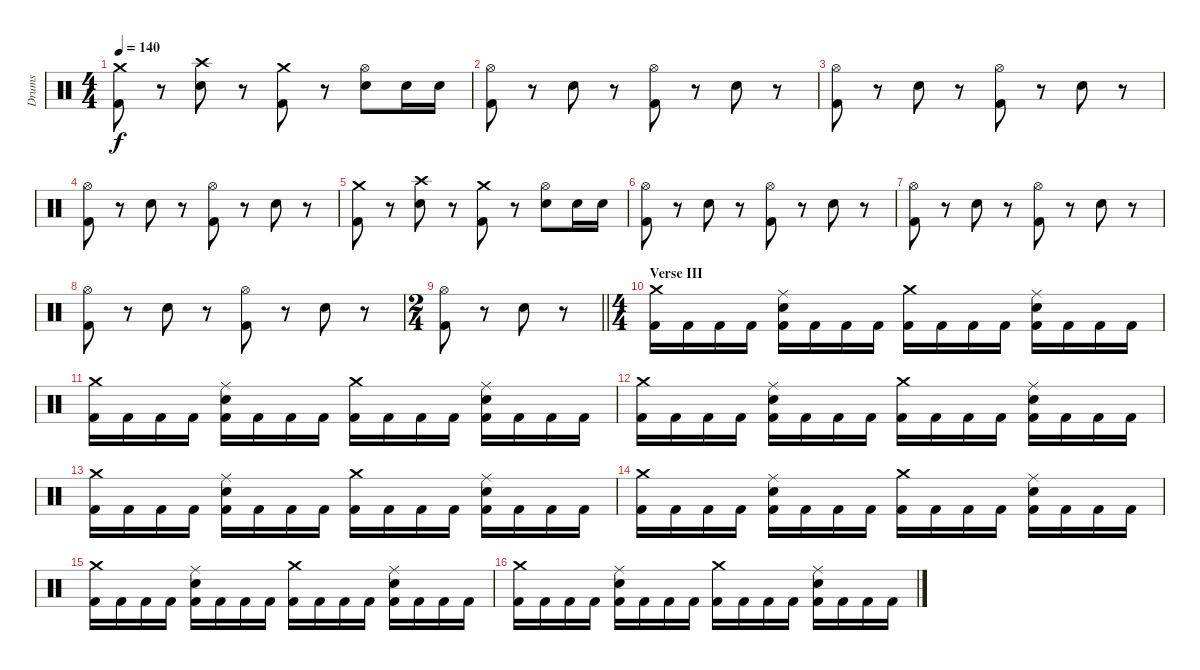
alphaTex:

\track ("Drums" "Drums") {instrument percussion}
\staff {score}
\articulation defaults
\ts (4 4)
\tempo 140
\clef neutral
\ks c
("Crash medium (hit)" "Kick (hit) 2").8{dy f} r.8 ("Crash high (hit)" "Snare (hit) 2").8 r.8 ("Crash medium (hit)" "Kick (hit) 2").8 r.8 ("Hi-Hat (open)" "Snare (hit) 2").8 "Snare (hit) 2".16 "Snare (hit) 2".16 |
("Hi-Hat (open)" "Kick (hit) 2").8 r.8 "Snare (hit) 2".8 r.8 ("Hi-Hat (open)" "Kick (hit) 2").8 r.8 "Snare (hit) 2".8 r.8 |
("Hi-Hat (open)" "Kick (hit) 2").8 r.8 "Snare (hit) 2".8 r.8 ("Hi-Hat (open)" "Kick (hit) 2").8 r.8 "Snare (hit) 2".8 r.8 |
("Hi-Hat (open)" "Kick (hit) 2").8 r.8 "Snare (hit) 2".8 r.8 ("Hi-Hat (open)" "Kick (hit) 2").8 r.8 "Snare (hit) 2".8 r.8 |
("Crash medium (hit)" "Kick (hit) 2").8 r.8 ("Crash high (hit)" "Snare (hit) 2").8 r.8 ("Crash medium (hit)" "Kick (hit) 2").8 r.8 ("Hi-Hat (open)" "Snare (hit) 2").8 "Snare (hit) 2".16 "Snare (hit) 2".16 |
("Hi-Hat (open)" "Kick (hit) 2").8 r.8 "Snare (hit) 2".8 r.8 ("Hi-Hat (open)" "Kick (hit) 2").8 r.8 "Snare (hit) 2".8 r.8 |
("Hi-Hat (open)" "Kick (hit) 2").8 r.8 "Snare (hit) 2".8 r.8 ("Hi-Hat (open)" "Kick (hit) 2").8 r.8 "Snare (hit) 2".8 r.8 |
("Hi-Hat (open)" "Kick (hit) 2").8 r.8 "Snare (hit) 2".8 r.8 ("Hi-Hat (open)" "Kick (hit) 2").8 r.8 "Snare (hit) 2".8 r.8 |
\ts (2 4)
\barLineRight lightlight
("Hi-Hat (open)" "Kick (hit) 2").8 r.8 "Snare (hit) 2".8 r.8 |
\ts (4 4)
\section ("" "Verse III")
("Crash medium (hit)" "Kick (hit) 2").16 "Kick (hit) 2".16 "Kick (hit) 2".16 "Kick (hit) 2".16 ("Ride (middle)" "Snare (hit) 2" "Kick (hit) 2").16 "Kick (hit) 2".16 "Kick (hit) 2".16 "Kick (hit) 2".16 ("Crash medium (hit)" "Kick (hit) 2").16 "Kick (hit) 2".16 "Kick (hit) 2".16 "Kick (hit) 2".16 ("Ride (middle)" "Snare (hit) 2" "Kick (hit) 2").16 "Kick (hit) 2".16 "Kick (hit) 2".16 "Kick (hit) 2".16 |
("Crash medium (hit)" "Kick (hit) 2").16 "Kick (hit) 2".16 "Kick (hit) 2".16 "Kick (hit) 2".16 ("Ride (middle)" "Snare (hit) 2" "Kick (hit) 2").16 "Kick (hit) 2".16 "Kick (hit) 2".16 "Kick (hit) 2".16 ("Crash medium (hit)" "Kick (hit) 2").16 "Kick (hit) 2".16 "Kick (hit) 2".16 "Kick (hit) 2".16 ("Ride (middle)" "Snare (hit) 2" "Kick (hit) 2").16 "Kick (hit) 2".16 "Kick (hit) 2".16 "Kick (hit) 2".16 |
("Crash medium (hit)" "Kick (hit) 2").16 "Kick (hit) 2".16 "Kick (hit) 2".16 "Kick (hit) 2".16 ("Ride (middle)" "Snare (hit) 2" "Kick (hit) 2").16 "Kick (hit) 2".16 "Kick (hit) 2".16 "Kick (hit) 2".16 ("Crash medium (hit)" "Kick (hit) 2").16 "Kick (hit) 2".16 "Kick (hit) 2".16 "Kick (hit) 2".16 ("Ride (middle)" "Snare (hit) 2" "Kick (hit) 2").16 "Kick (hit) 2".16 "Kick (hit) 2".16 "Kick (hit) 2".16 |
("Crash medium (hit)" "Kick (hit) 2").16 "Kick (hit) 2".16 "Kick (hit) 2".16 "Kick (hit) 2".16 ("Ride (middle)" "Snare (hit) 2" "Kick (hit) 2").16 "Kick (hit) 2".16 "Kick (hit) 2".16 "Kick (hit) 2".16 ("Crash medium (hit)" "Kick (hit) 2").16 "Kick (hit) 2".16 "Kick (hit) 2".16 "Kick (hit) 2".16 ("Ride (middle)" "Snare (hit) 2" "Kick (hit) 2").16 "Kick (hit) 2".16 "Kick (hit) 2".16 "Kick (hit) 2".16 |
("Crash medium (hit)" "Kick (hit) 2").16 "Kick (hit) 2".16 "Kick (hit) 2".16 "Kick (hit) 2".16 ("Ride (middle)" "Snare (hit) 2" "Kick (hit) 2").16 "Kick (hit) 2".16 "Kick (hit) 2".16 "Kick (hit) 2".16 ("Crash medium (hit)" "Kick (hit) 2").16 "Kick (hit) 2".16 "Kick (hit) 2".16 "Kick (hit) 2".16 ("Ride (middle)" "Snare (hit) 2" "Kick (hit) 2").16 "Kick (hit) 2".16 "Kick (hit) 2".16 "Kick (hit) 2".16 |
("Crash medium (hit)" "Kick (hit) 2").16 "Kick (hit) 2".16 "Kick (hit) 2".16 "Kick (hit) 2".16 ("Ride (middle)" "Snare (hit) 2" "Kick (hit) 2").16 "Kick (hit) 2".16 "Kick (hit) 2".16 "Kick (hit) 2".16 ("Crash medium (hit)" "Kick (hit) 2").16 "Kick (hit) 2".16 "Kick (hit) 2".16 "Kick (hit) 2".16 ("Ride (middle)" "Snare (hit) 2" "Kick (hit) 2").16 "Kick (hit) 2".16 "Kick (hit) 2".16 "Kick (hit) 2".16 |
("Crash medium (hit)" "Kick (hit) 2").16 "Kick (hit) 2".16 "Kick (hit) 2".16 "Kick (hit) 2".16 ("Ride (middle)" "Snare (hit) 2" "Kick (hit) 2").16 "Kick (hit) 2".16 "Kick (hit) 2".16 "Kick (hit) 2".16 ("Crash medium (hit)" "Kick (hit) 2").16 "Kick (hit) 2".16 "Kick (hit) 2".16 "Kick (hit) 2".16 ("Ride (middle)" "Snare (hit) 2" "Kick (hit) 2").16 "Kick (hit) 2".16 "Kick (hit) 2".16 "Kick (hit) 2".16
